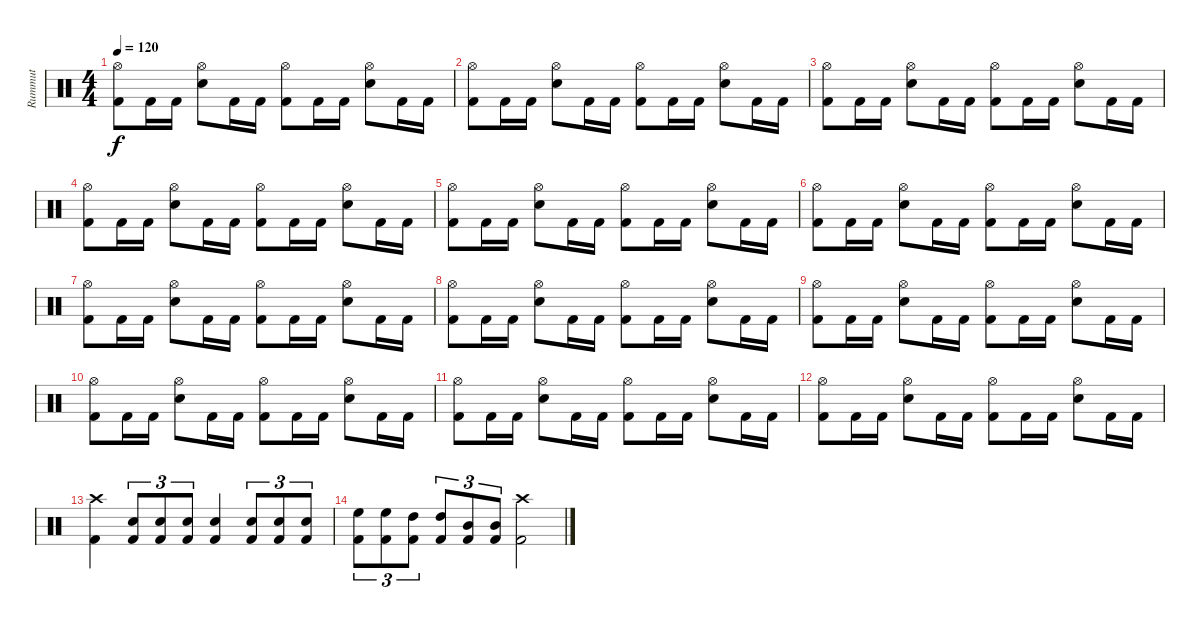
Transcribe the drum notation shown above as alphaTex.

\track ("Rummut" "Rummut") {instrument percussion}
\staff {score}
\articulation defaults
\ts (4 4)
\tempo 120
\clef neutral
\ks c
("Kick (hit) 2" "Hi-Hat (open)").8{dy f} "Kick (hit) 2".16 "Kick (hit) 2".16 ("Snare (hit) 2" "Hi-Hat (open)").8 "Kick (hit) 2".16 "Kick (hit) 2".16 ("Kick (hit) 2" "Hi-Hat (open)").8 "Kick (hit) 2".16 "Kick (hit) 2".16 ("Snare (hit) 2" "Hi-Hat (open)").8 "Kick (hit) 2".16 "Kick (hit) 2".16 |
("Kick (hit) 2" "Hi-Hat (open)").8 "Kick (hit) 2".16 "Kick (hit) 2".16 ("Snare (hit) 2" "Hi-Hat (open)").8 "Kick (hit) 2".16 "Kick (hit) 2".16 ("Kick (hit) 2" "Hi-Hat (open)").8 "Kick (hit) 2".16 "Kick (hit) 2".16 ("Snare (hit) 2" "Hi-Hat (open)").8 "Kick (hit) 2".16 "Kick (hit) 2".16 |
("Kick (hit) 2" "Hi-Hat (open)").8 "Kick (hit) 2".16 "Kick (hit) 2".16 ("Snare (hit) 2" "Hi-Hat (open)").8 "Kick (hit) 2".16 "Kick (hit) 2".16 ("Kick (hit) 2" "Hi-Hat (open)").8 "Kick (hit) 2".16 "Kick (hit) 2".16 ("Snare (hit) 2" "Hi-Hat (open)").8 "Kick (hit) 2".16 "Kick (hit) 2".16 |
("Kick (hit) 2" "Hi-Hat (open)").8 "Kick (hit) 2".16 "Kick (hit) 2".16 ("Snare (hit) 2" "Hi-Hat (open)").8 "Kick (hit) 2".16 "Kick (hit) 2".16 ("Kick (hit) 2" "Hi-Hat (open)").8 "Kick (hit) 2".16 "Kick (hit) 2".16 ("Snare (hit) 2" "Hi-Hat (open)").8 "Kick (hit) 2".16 "Kick (hit) 2".16 |
("Kick (hit) 2" "Hi-Hat (open)").8 "Kick (hit) 2".16 "Kick (hit) 2".16 ("Snare (hit) 2" "Hi-Hat (open)").8 "Kick (hit) 2".16 "Kick (hit) 2".16 ("Kick (hit) 2" "Hi-Hat (open)").8 "Kick (hit) 2".16 "Kick (hit) 2".16 ("Snare (hit) 2" "Hi-Hat (open)").8 "Kick (hit) 2".16 "Kick (hit) 2".16 |
("Kick (hit) 2" "Hi-Hat (open)").8 "Kick (hit) 2".16 "Kick (hit) 2".16 ("Snare (hit) 2" "Hi-Hat (open)").8 "Kick (hit) 2".16 "Kick (hit) 2".16 ("Kick (hit) 2" "Hi-Hat (open)").8 "Kick (hit) 2".16 "Kick (hit) 2".16 ("Snare (hit) 2" "Hi-Hat (open)").8 "Kick (hit) 2".16 "Kick (hit) 2".16 |
("Kick (hit) 2" "Hi-Hat (open)").8 "Kick (hit) 2".16 "Kick (hit) 2".16 ("Snare (hit) 2" "Hi-Hat (open)").8 "Kick (hit) 2".16 "Kick (hit) 2".16 ("Kick (hit) 2" "Hi-Hat (open)").8 "Kick (hit) 2".16 "Kick (hit) 2".16 ("Snare (hit) 2" "Hi-Hat (open)").8 "Kick (hit) 2".16 "Kick (hit) 2".16 |
("Kick (hit) 2" "Hi-Hat (open)").8 "Kick (hit) 2".16 "Kick (hit) 2".16 ("Snare (hit) 2" "Hi-Hat (open)").8 "Kick (hit) 2".16 "Kick (hit) 2".16 ("Kick (hit) 2" "Hi-Hat (open)").8 "Kick (hit) 2".16 "Kick (hit) 2".16 ("Snare (hit) 2" "Hi-Hat (open)").8 "Kick (hit) 2".16 "Kick (hit) 2".16 |
("Kick (hit) 2" "Hi-Hat (open)").8 "Kick (hit) 2".16 "Kick (hit) 2".16 ("Snare (hit) 2" "Hi-Hat (open)").8 "Kick (hit) 2".16 "Kick (hit) 2".16 ("Kick (hit) 2" "Hi-Hat (open)").8 "Kick (hit) 2".16 "Kick (hit) 2".16 ("Snare (hit) 2" "Hi-Hat (open)").8 "Kick (hit) 2".16 "Kick (hit) 2".16 |
("Kick (hit) 2" "Hi-Hat (open)").8 "Kick (hit) 2".16 "Kick (hit) 2".16 ("Snare (hit) 2" "Hi-Hat (open)").8 "Kick (hit) 2".16 "Kick (hit) 2".16 ("Kick (hit) 2" "Hi-Hat (open)").8 "Kick (hit) 2".16 "Kick (hit) 2".16 ("Snare (hit) 2" "Hi-Hat (open)").8 "Kick (hit) 2".16 "Kick (hit) 2".16 |
("Kick (hit) 2" "Hi-Hat (open)").8 "Kick (hit) 2".16 "Kick (hit) 2".16 ("Snare (hit) 2" "Hi-Hat (open)").8 "Kick (hit) 2".16 "Kick (hit) 2".16 ("Kick (hit) 2" "Hi-Hat (open)").8 "Kick (hit) 2".16 "Kick (hit) 2".16 ("Snare (hit) 2" "Hi-Hat (open)").8 "Kick (hit) 2".16 "Kick (hit) 2".16 |
("Kick (hit) 2" "Hi-Hat (open)").8 "Kick (hit) 2".16 "Kick (hit) 2".16 ("Snare (hit) 2" "Hi-Hat (open)").8 "Kick (hit) 2".16 "Kick (hit) 2".16 ("Kick (hit) 2" "Hi-Hat (open)").8 "Kick (hit) 2".16 "Kick (hit) 2".16 ("Snare (hit) 2" "Hi-Hat (open)").8 "Kick (hit) 2".16 "Kick (hit) 2".16 |
("Kick (hit) 2" "Crash high (hit)").4 ("Kick (hit) 2" "Snare (hit) 2").8{tu (3 2)} ("Kick (hit) 2" "Snare (hit) 2").8{tu (3 2)} ("Kick (hit) 2" "Snare (hit) 2").8{tu (3 2)} ("Kick (hit) 2" "Snare (hit) 2").4 ("Kick (hit) 2" "Snare (hit) 2").8{tu (3 2)} ("Kick (hit) 2" "Snare (hit) 2").8{tu (3 2)} ("Kick (hit) 2" "Snare (hit) 2").8{tu (3 2)} |
("Kick (hit) 2" "High Floor Tom (hit)").8{tu (3 2)} ("Kick (hit) 2" "High Floor Tom (hit)").8{tu (3 2)} ("Kick (hit) 2" "High Tom (hit)").8{tu (3 2)} ("Kick (hit) 2" "High Tom (hit)").8{tu (3 2)} ("Kick (hit) 2" "Mid Tom (hit)").8{tu (3 2)} ("Kick (hit) 2" "Mid Tom (hit)").8{tu (3 2)} ("Kick (hit) 2" "Crash high (hit)").2
